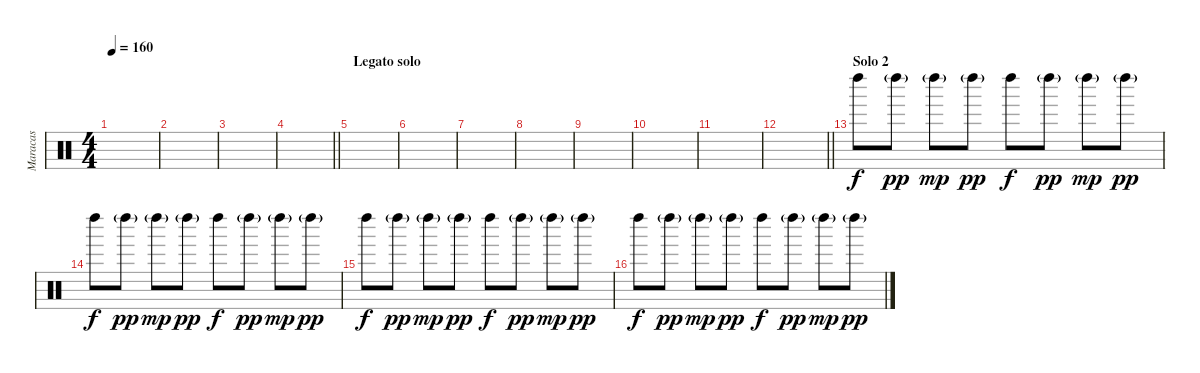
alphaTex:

\track ("Maracas" "Maracas") {instrument percussion}
\staff {score}
\articulation defaults
\ts (4 4)
\tempo 160
\clef neutral
\ks c
|
|
|
\barLineRight lightlight
|
\section ("" "Legato solo")
|
|
|
|
|
|
|
\barLineRight lightlight
|
\section ("" "Solo 2")
"Left Maraca (hit)".8 "Left Maraca (hit)"{g}.8{dy pp} "Left Maraca (hit)"{g}.8{dy mp} "Left Maraca (hit)"{g}.8{dy pp} "Left Maraca (hit)".8{dy f} "Left Maraca (hit)"{g}.8{dy pp} "Left Maraca (hit)"{g}.8{dy mp} "Left Maraca (hit)"{g}.8{dy pp} |
"Left Maraca (hit)".8{dy f} "Left Maraca (hit)"{g}.8{dy pp} "Left Maraca (hit)"{g}.8{dy mp} "Left Maraca (hit)"{g}.8{dy pp} "Left Maraca (hit)".8{dy f} "Left Maraca (hit)"{g}.8{dy pp} "Left Maraca (hit)"{g}.8{dy mp} "Left Maraca (hit)"{g}.8{dy pp} |
"Left Maraca (hit)".8{dy f} "Left Maraca (hit)"{g}.8{dy pp} "Left Maraca (hit)"{g}.8{dy mp} "Left Maraca (hit)"{g}.8{dy pp} "Left Maraca (hit)".8{dy f} "Left Maraca (hit)"{g}.8{dy pp} "Left Maraca (hit)"{g}.8{dy mp} "Left Maraca (hit)"{g}.8{dy pp} |
"Left Maraca (hit)".8{dy f} "Left Maraca (hit)"{g}.8{dy pp} "Left Maraca (hit)"{g}.8{dy mp} "Left Maraca (hit)"{g}.8{dy pp} "Left Maraca (hit)".8{dy f} "Left Maraca (hit)"{g}.8{dy pp} "Left Maraca (hit)"{g}.8{dy mp} "Left Maraca (hit)"{g}.8{dy pp}
